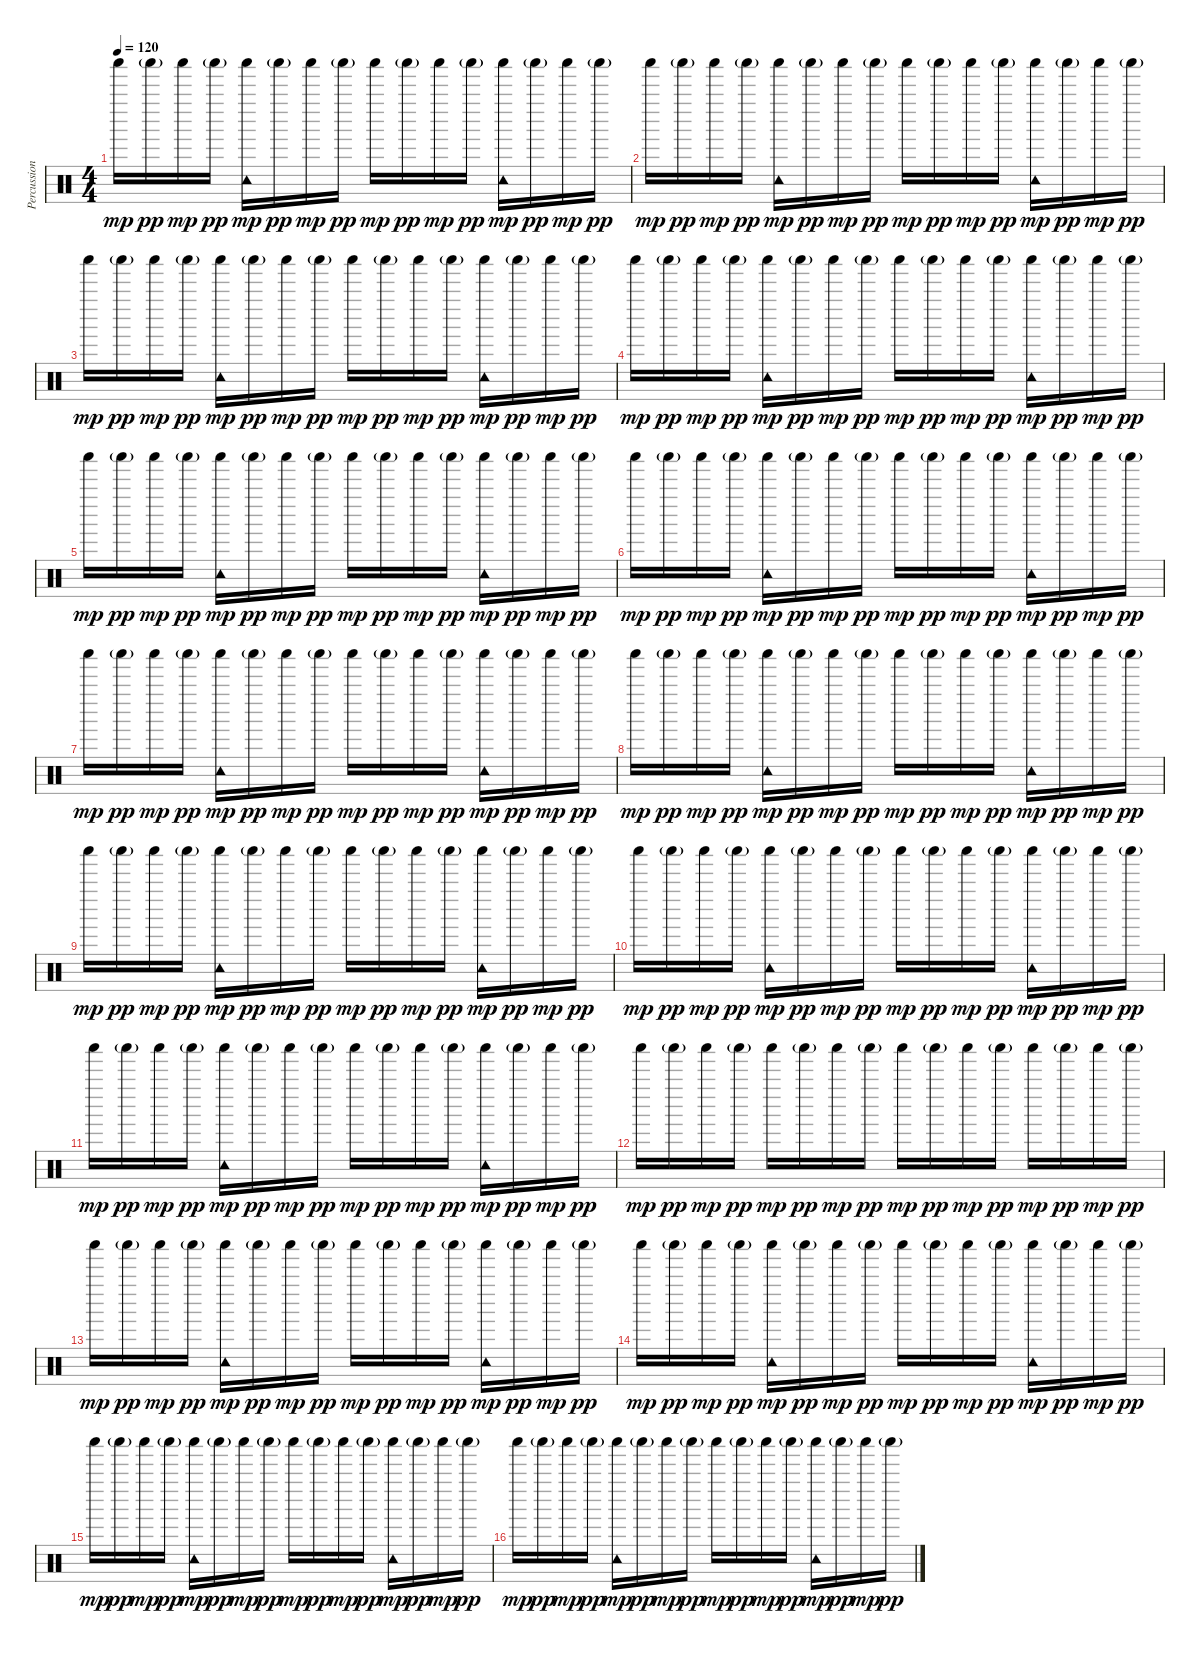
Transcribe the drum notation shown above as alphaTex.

\track ("Percussion" "Percussion") {instrument percussion}
\staff {score}
\articulation defaults
\ts (4 4)
\tempo 120
\clef neutral
\ks c "Shaker (hit)".16{dy mp} "Shaker (hit)"{g}.16{dy pp} "Shaker (hit)".16{dy mp} "Shaker (hit)"{g}.16{dy pp}
("Shaker (hit)" "Tambourine (hit)").16{dy mp} "Shaker (hit)"{g}.16{dy pp} "Shaker (hit)".16{dy mp} "Shaker (hit)"{g}.16{dy pp} "Shaker (hit)".16{dy mp} "Shaker (hit)"{g}.16{dy pp} "Shaker (hit)".16{dy mp} "Shaker (hit)"{g}.16{dy pp} ("Shaker (hit)" "Tambourine (hit)").16{dy mp} "Shaker (hit)"{g}.16{dy pp} "Shaker (hit)".16{dy mp} "Shaker (hit)"{g}.16{dy pp} |
"Shaker (hit)".16{dy mp} "Shaker (hit)"{g}.16{dy pp} "Shaker (hit)".16{dy mp} "Shaker (hit)"{g}.16{dy pp} ("Shaker (hit)" "Tambourine (hit)").16{dy mp} "Shaker (hit)"{g}.16{dy pp} "Shaker (hit)".16{dy mp} "Shaker (hit)"{g}.16{dy pp} "Shaker (hit)".16{dy mp} "Shaker (hit)"{g}.16{dy pp} "Shaker (hit)".16{dy mp} "Shaker (hit)"{g}.16{dy pp} ("Shaker (hit)" "Tambourine (hit)").16{dy mp} "Shaker (hit)"{g}.16{dy pp} "Shaker (hit)".16{dy mp} "Shaker (hit)"{g}.16{dy pp} |
"Shaker (hit)".16{dy mp} "Shaker (hit)"{g}.16{dy pp} "Shaker (hit)".16{dy mp} "Shaker (hit)"{g}.16{dy pp} ("Shaker (hit)" "Tambourine (hit)").16{dy mp} "Shaker (hit)"{g}.16{dy pp} "Shaker (hit)".16{dy mp} "Shaker (hit)"{g}.16{dy pp} "Shaker (hit)".16{dy mp} "Shaker (hit)"{g}.16{dy pp} "Shaker (hit)".16{dy mp} "Shaker (hit)"{g}.16{dy pp} ("Shaker (hit)" "Tambourine (hit)").16{dy mp} "Shaker (hit)"{g}.16{dy pp} "Shaker (hit)".16{dy mp} "Shaker (hit)"{g}.16{dy pp} |
"Shaker (hit)".16{dy mp} "Shaker (hit)"{g}.16{dy pp} "Shaker (hit)".16{dy mp} "Shaker (hit)"{g}.16{dy pp} ("Shaker (hit)" "Tambourine (hit)").16{dy mp} "Shaker (hit)"{g}.16{dy pp} "Shaker (hit)".16{dy mp} "Shaker (hit)"{g}.16{dy pp} "Shaker (hit)".16{dy mp} "Shaker (hit)"{g}.16{dy pp} "Shaker (hit)".16{dy mp} "Shaker (hit)"{g}.16{dy pp} ("Shaker (hit)" "Tambourine (hit)").16{dy mp} "Shaker (hit)"{g}.16{dy pp} "Shaker (hit)".16{dy mp} "Shaker (hit)"{g}.16{dy pp} |
"Shaker (hit)".16{dy mp} "Shaker (hit)"{g}.16{dy pp} "Shaker (hit)".16{dy mp} "Shaker (hit)"{g}.16{dy pp} ("Shaker (hit)" "Tambourine (hit)").16{dy mp} "Shaker (hit)"{g}.16{dy pp} "Shaker (hit)".16{dy mp} "Shaker (hit)"{g}.16{dy pp} "Shaker (hit)".16{dy mp} "Shaker (hit)"{g}.16{dy pp} "Shaker (hit)".16{dy mp} "Shaker (hit)"{g}.16{dy pp} ("Shaker (hit)" "Tambourine (hit)").16{dy mp} "Shaker (hit)"{g}.16{dy pp} "Shaker (hit)".16{dy mp} "Shaker (hit)"{g}.16{dy pp} |
"Shaker (hit)".16{dy mp} "Shaker (hit)"{g}.16{dy pp} "Shaker (hit)".16{dy mp} "Shaker (hit)"{g}.16{dy pp} ("Shaker (hit)" "Tambourine (hit)").16{dy mp} "Shaker (hit)"{g}.16{dy pp} "Shaker (hit)".16{dy mp} "Shaker (hit)"{g}.16{dy pp} "Shaker (hit)".16{dy mp} "Shaker (hit)"{g}.16{dy pp} "Shaker (hit)".16{dy mp} "Shaker (hit)"{g}.16{dy pp} ("Shaker (hit)" "Tambourine (hit)").16{dy mp} "Shaker (hit)"{g}.16{dy pp} "Shaker (hit)".16{dy mp} "Shaker (hit)"{g}.16{dy pp} |
"Shaker (hit)".16{dy mp} "Shaker (hit)"{g}.16{dy pp} "Shaker (hit)".16{dy mp} "Shaker (hit)"{g}.16{dy pp} ("Shaker (hit)" "Tambourine (hit)").16{dy mp} "Shaker (hit)"{g}.16{dy pp} "Shaker (hit)".16{dy mp} "Shaker (hit)"{g}.16{dy pp} "Shaker (hit)".16{dy mp} "Shaker (hit)"{g}.16{dy pp} "Shaker (hit)".16{dy mp} "Shaker (hit)"{g}.16{dy pp} ("Shaker (hit)" "Tambourine (hit)").16{dy mp} "Shaker (hit)"{g}.16{dy pp} "Shaker (hit)".16{dy mp} "Shaker (hit)"{g}.16{dy pp} |
"Shaker (hit)".16{dy mp} "Shaker (hit)"{g}.16{dy pp} "Shaker (hit)".16{dy mp} "Shaker (hit)"{g}.16{dy pp} ("Shaker (hit)" "Tambourine (hit)").16{dy mp} "Shaker (hit)"{g}.16{dy pp} "Shaker (hit)".16{dy mp} "Shaker (hit)"{g}.16{dy pp} "Shaker (hit)".16{dy mp} "Shaker (hit)"{g}.16{dy pp} "Shaker (hit)".16{dy mp} "Shaker (hit)"{g}.16{dy pp} ("Shaker (hit)" "Tambourine (hit)").16{dy mp} "Shaker (hit)"{g}.16{dy pp} "Shaker (hit)".16{dy mp} "Shaker (hit)"{g}.16{dy pp} |
"Shaker (hit)".16{dy mp} "Shaker (hit)"{g}.16{dy pp} "Shaker (hit)".16{dy mp} "Shaker (hit)"{g}.16{dy pp} ("Shaker (hit)" "Tambourine (hit)").16{dy mp} "Shaker (hit)"{g}.16{dy pp} "Shaker (hit)".16{dy mp} "Shaker (hit)"{g}.16{dy pp} "Shaker (hit)".16{dy mp} "Shaker (hit)"{g}.16{dy pp} "Shaker (hit)".16{dy mp} "Shaker (hit)"{g}.16{dy pp} ("Shaker (hit)" "Tambourine (hit)").16{dy mp} "Shaker (hit)"{g}.16{dy pp} "Shaker (hit)".16{dy mp} "Shaker (hit)"{g}.16{dy pp} |
"Shaker (hit)".16{dy mp} "Shaker (hit)"{g}.16{dy pp} "Shaker (hit)".16{dy mp} "Shaker (hit)"{g}.16{dy pp} ("Shaker (hit)" "Tambourine (hit)").16{dy mp} "Shaker (hit)"{g}.16{dy pp} "Shaker (hit)".16{dy mp} "Shaker (hit)"{g}.16{dy pp} "Shaker (hit)".16{dy mp} "Shaker (hit)"{g}.16{dy pp} "Shaker (hit)".16{dy mp} "Shaker (hit)"{g}.16{dy pp} ("Shaker (hit)" "Tambourine (hit)").16{dy mp} "Shaker (hit)"{g}.16{dy pp} "Shaker (hit)".16{dy mp} "Shaker (hit)"{g}.16{dy pp} |
"Shaker (hit)".16{dy mp} "Shaker (hit)"{g}.16{dy pp} "Shaker (hit)".16{dy mp} "Shaker (hit)"{g}.16{dy pp} ("Shaker (hit)" "Tambourine (hit)").16{dy mp} "Shaker (hit)"{g}.16{dy pp} "Shaker (hit)".16{dy mp} "Shaker (hit)"{g}.16{dy pp} "Shaker (hit)".16{dy mp} "Shaker (hit)"{g}.16{dy pp} "Shaker (hit)".16{dy mp} "Shaker (hit)"{g}.16{dy pp} ("Shaker (hit)" "Tambourine (hit)").16{dy mp} "Shaker (hit)"{g}.16{dy pp} "Shaker (hit)".16{dy mp} "Shaker (hit)"{g}.16{dy pp} |
"Shaker (hit)".16{dy mp} "Shaker (hit)"{g}.16{dy pp} "Shaker (hit)".16{dy mp} "Shaker (hit)"{g}.16{dy pp} "Shaker (hit)".16{dy mp} "Shaker (hit)"{g}.16{dy pp} "Shaker (hit)".16{dy mp} "Shaker (hit)"{g}.16{dy pp} "Shaker (hit)".16{dy mp} "Shaker (hit)"{g}.16{dy pp} "Shaker (hit)".16{dy mp} "Shaker (hit)"{g}.16{dy pp} "Shaker (hit)".16{dy mp} "Shaker (hit)"{g}.16{dy pp} "Shaker (hit)".16{dy mp} "Shaker (hit)"{g}.16{dy pp} |
"Shaker (hit)".16{dy mp} "Shaker (hit)"{g}.16{dy pp} "Shaker (hit)".16{dy mp} "Shaker (hit)"{g}.16{dy pp} ("Shaker (hit)" "Tambourine (hit)").16{dy mp} "Shaker (hit)"{g}.16{dy pp} "Shaker (hit)".16{dy mp} "Shaker (hit)"{g}.16{dy pp} "Shaker (hit)".16{dy mp} "Shaker (hit)"{g}.16{dy pp} "Shaker (hit)".16{dy mp} "Shaker (hit)"{g}.16{dy pp} ("Shaker (hit)" "Tambourine (hit)").16{dy mp} "Shaker (hit)"{g}.16{dy pp} "Shaker (hit)".16{dy mp} "Shaker (hit)"{g}.16{dy pp} |
"Shaker (hit)".16{dy mp} "Shaker (hit)"{g}.16{dy pp} "Shaker (hit)".16{dy mp} "Shaker (hit)"{g}.16{dy pp} ("Shaker (hit)" "Tambourine (hit)").16{dy mp} "Shaker (hit)"{g}.16{dy pp} "Shaker (hit)".16{dy mp} "Shaker (hit)"{g}.16{dy pp} "Shaker (hit)".16{dy mp} "Shaker (hit)"{g}.16{dy pp} "Shaker (hit)".16{dy mp} "Shaker (hit)"{g}.16{dy pp} ("Shaker (hit)" "Tambourine (hit)").16{dy mp} "Shaker (hit)"{g}.16{dy pp} "Shaker (hit)".16{dy mp} "Shaker (hit)"{g}.16{dy pp} |
"Shaker (hit)".16{dy mp} "Shaker (hit)"{g}.16{dy pp} "Shaker (hit)".16{dy mp} "Shaker (hit)"{g}.16{dy pp} ("Shaker (hit)" "Tambourine (hit)").16{dy mp} "Shaker (hit)"{g}.16{dy pp} "Shaker (hit)".16{dy mp} "Shaker (hit)"{g}.16{dy pp} "Shaker (hit)".16{dy mp} "Shaker (hit)"{g}.16{dy pp} "Shaker (hit)".16{dy mp} "Shaker (hit)"{g}.16{dy pp} ("Shaker (hit)" "Tambourine (hit)").16{dy mp} "Shaker (hit)"{g}.16{dy pp} "Shaker (hit)".16{dy mp} "Shaker (hit)"{g}.16{dy pp} |
"Shaker (hit)".16{dy mp} "Shaker (hit)"{g}.16{dy pp} "Shaker (hit)".16{dy mp} "Shaker (hit)"{g}.16{dy pp} ("Shaker (hit)" "Tambourine (hit)").16{dy mp} "Shaker (hit)"{g}.16{dy pp} "Shaker (hit)".16{dy mp} "Shaker (hit)"{g}.16{dy pp} "Shaker (hit)".16{dy mp} "Shaker (hit)"{g}.16{dy pp} "Shaker (hit)".16{dy mp} "Shaker (hit)"{g}.16{dy pp} ("Shaker (hit)" "Tambourine (hit)").16{dy mp} "Shaker (hit)"{g}.16{dy pp} "Shaker (hit)".16{dy mp} "Shaker (hit)"{g}.16{dy pp}
